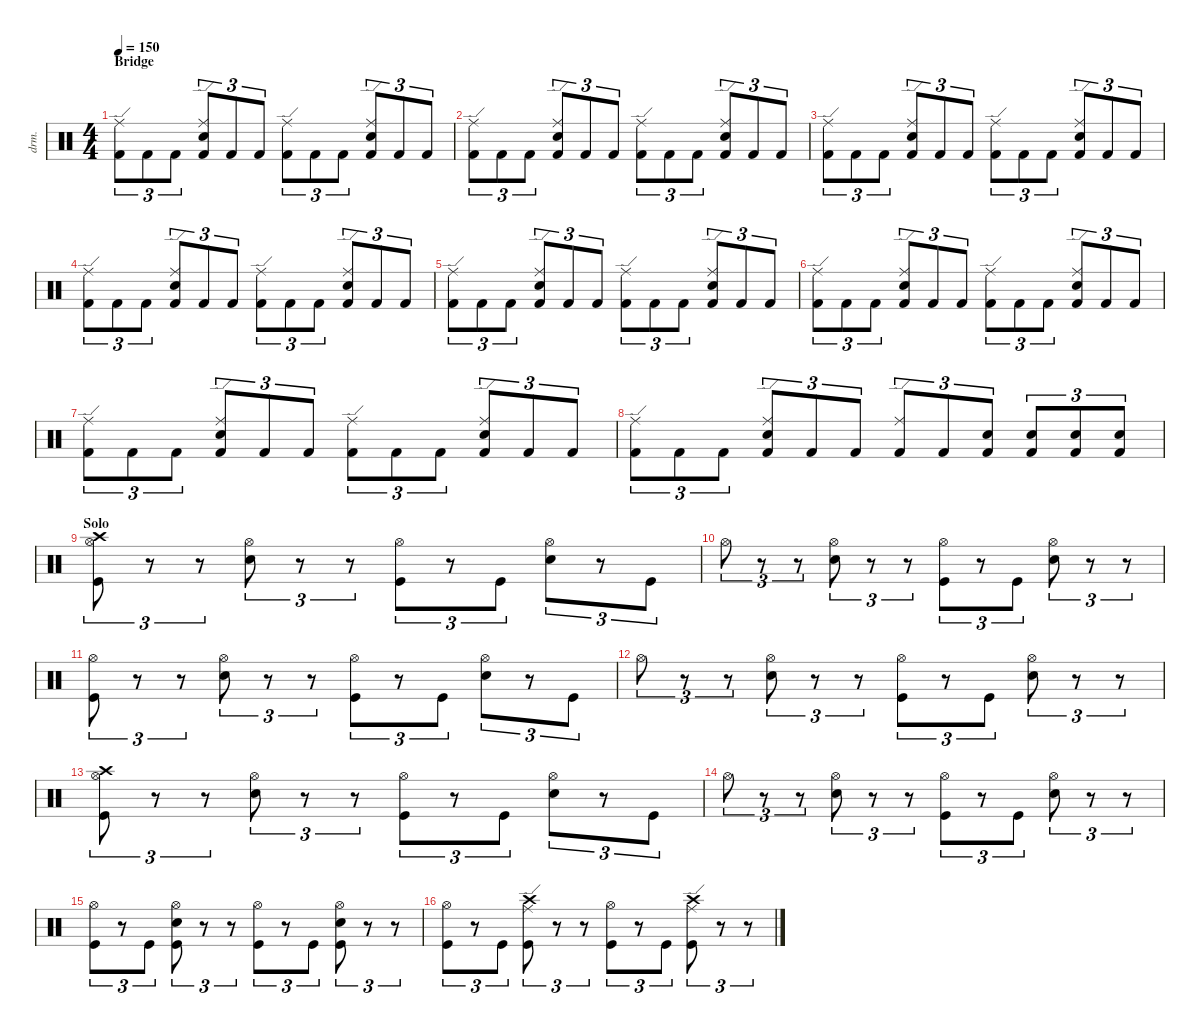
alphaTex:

\defaultSystemsLayout 4
\hideDynamics
\bracketExtendMode nobrackets
\otherSystemsTrackNameOrientation horizontal
\track ("Drumkit" "drm.") {solo instrument percussion}
\staff {score}
\articulation defaults
\ts (4 4)
\section ("" "Bridge")
\scale
1.06666
\tempo 150
\accidentals auto
\clef neutral
\ottava regular
\simile none
\ks aminor
("Kick (hit) 2" "Ride (edge)").8{tu (3 2) dy mf beam Down} "Kick (hit) 2".8{tu (3 2) beam Down} "Kick (hit) 2".8{tu (3 2) beam Down} ("Kick (hit) 2" "Snare (hit) 2" "Ride (edge)").8{tu (3 2) beam Up} "Kick (hit) 2".8{tu (3 2) beam Up} "Kick (hit) 2".8{tu (3 2) beam Up} ("Kick (hit) 2" "Ride (edge)").8{tu (3 2) beam Down} "Kick (hit) 2".8{tu (3 2) beam Down} "Kick (hit) 2".8{tu (3 2) beam Down} ("Kick (hit) 2" "Snare (hit) 2" "Ride (edge)").8{tu (3 2) beam Up} "Kick (hit) 2".8{tu (3 2) beam Up} "Kick (hit) 2".8{tu (3 2) beam Up} |
\scale
0.977779 ("Kick (hit) 2" "Ride (edge)").8{tu (3 2) beam Down} "Kick (hit) 2".8{tu (3 2) beam Down} "Kick (hit) 2".8{tu (3 2) beam Down} ("Kick (hit) 2" "Snare (hit) 2" "Ride (edge)").8{tu (3 2) beam Up} "Kick (hit) 2".8{tu (3 2) beam Up} "Kick (hit) 2".8{tu (3 2) beam Up} ("Kick (hit) 2" "Ride (edge)").8{tu (3 2) beam Down} "Kick (hit) 2".8{tu (3 2) beam Down} "Kick (hit) 2".8{tu (3 2) beam Down} ("Kick (hit) 2" "Snare (hit) 2" "Ride (edge)").8{tu (3 2) beam Up} "Kick (hit) 2".8{tu (3 2) beam Up} "Kick (hit) 2".8{tu (3 2) beam Up} |
\scale
0.977779 ("Kick (hit) 2" "Ride (edge)").8{tu (3 2) beam Down} "Kick (hit) 2".8{tu (3 2) beam Down} "Kick (hit) 2".8{tu (3 2) beam Down} ("Kick (hit) 2" "Snare (hit) 2" "Ride (edge)").8{tu (3 2) beam Up} "Kick (hit) 2".8{tu (3 2) beam Up} "Kick (hit) 2".8{tu (3 2) beam Up} ("Kick (hit) 2" "Ride (edge)").8{tu (3 2) beam Down} "Kick (hit) 2".8{tu (3 2) beam Down} "Kick (hit) 2".8{tu (3 2) beam Down} ("Kick (hit) 2" "Snare (hit) 2" "Ride (edge)").8{tu (3 2) beam Up} "Kick (hit) 2".8{tu (3 2) beam Up} "Kick (hit) 2".8{tu (3 2) beam Up} |
\scale
0.977779 ("Kick (hit) 2" "Ride (edge)").8{tu (3 2) beam Down} "Kick (hit) 2".8{tu (3 2) beam Down} "Kick (hit) 2".8{tu (3 2) beam Down} ("Kick (hit) 2" "Snare (hit) 2" "Ride (edge)").8{tu (3 2) beam Up} "Kick (hit) 2".8{tu (3 2) beam Up} "Kick (hit) 2".8{tu (3 2) beam Up} ("Kick (hit) 2" "Ride (edge)").8{tu (3 2) beam Down} "Kick (hit) 2".8{tu (3 2) beam Down} "Kick (hit) 2".8{tu (3 2) beam Down} ("Kick (hit) 2" "Snare (hit) 2" "Ride (edge)").8{tu (3 2) beam Up} "Kick (hit) 2".8{tu (3 2) beam Up} "Kick (hit) 2".8{tu (3 2) beam Up} |
\scale
1.06224 ("Kick (hit) 2" "Ride (edge)").8{tu (3 2) beam Down} "Kick (hit) 2".8{tu (3 2) beam Down} "Kick (hit) 2".8{tu (3 2) beam Down} ("Kick (hit) 2" "Snare (hit) 2" "Ride (edge)").8{tu (3 2) beam Up} "Kick (hit) 2".8{tu (3 2) beam Up} "Kick (hit) 2".8{tu (3 2) beam Up} ("Kick (hit) 2" "Ride (edge)").8{tu (3 2) beam Down} "Kick (hit) 2".8{tu (3 2) beam Down} "Kick (hit) 2".8{tu (3 2) beam Down} ("Kick (hit) 2" "Snare (hit) 2" "Ride (edge)").8{tu (3 2) beam Up} "Kick (hit) 2".8{tu (3 2) beam Up} "Kick (hit) 2".8{tu (3 2) beam Up} |
\scale
0.973358 ("Kick (hit) 2" "Ride (edge)").8{tu (3 2) beam Down} "Kick (hit) 2".8{tu (3 2) beam Down} "Kick (hit) 2".8{tu (3 2) beam Down} ("Kick (hit) 2" "Snare (hit) 2" "Ride (edge)").8{tu (3 2) beam Up} "Kick (hit) 2".8{tu (3 2) beam Up} "Kick (hit) 2".8{tu (3 2) beam Up} ("Kick (hit) 2" "Ride (edge)").8{tu (3 2) beam Down} "Kick (hit) 2".8{tu (3 2) beam Down} "Kick (hit) 2".8{tu (3 2) beam Down} ("Kick (hit) 2" "Snare (hit) 2" "Ride (edge)").8{tu (3 2) beam Up} "Kick (hit) 2".8{tu (3 2) beam Up} "Kick (hit) 2".8{tu (3 2) beam Up} |
\scale
0.973358 ("Kick (hit) 2" "Ride (edge)").8{tu (3 2) beam Down} "Kick (hit) 2".8{tu (3 2) beam Down} "Kick (hit) 2".8{tu (3 2) beam Down} ("Kick (hit) 2" "Snare (hit) 2" "Ride (edge)").8{tu (3 2) beam Up} "Kick (hit) 2".8{tu (3 2) beam Up} "Kick (hit) 2".8{tu (3 2) beam Up} ("Kick (hit) 2" "Ride (edge)").8{tu (3 2) beam Down} "Kick (hit) 2".8{tu (3 2) beam Down} "Kick (hit) 2".8{tu (3 2) beam Down} ("Kick (hit) 2" "Snare (hit) 2" "Ride (edge)").8{tu (3 2) beam Up} "Kick (hit) 2".8{tu (3 2) beam Up} "Kick (hit) 2".8{tu (3 2) beam Up} |
\scale
0.991042 ("Kick (hit) 2" "Ride (edge)").8{tu (3 2) beam Down} "Kick (hit) 2".8{tu (3 2) beam Down} "Kick (hit) 2".8{tu (3 2) beam Down} ("Kick (hit) 2" "Snare (hit) 2" "Ride (edge)").8{tu (3 2) beam Up} "Kick (hit) 2".8{tu (3 2) beam Up} "Kick (hit) 2".8{tu (3 2) beam Up} ("Kick (hit) 2" "Ride (edge)").8{tu (3 2) beam Up} "Kick (hit) 2".8{tu (3 2) beam Up} ("Kick (hit) 2" "Snare (hit) 2").8{tu (3 2) beam Up} ("Kick (hit) 2" "Snare (hit) 2").8{tu (3 2) beam Up} ("Kick (hit) 2" "Snare (hit) 2").8{tu (3 2) beam Up} ("Kick (hit) 2" "Snare (hit) 2").8{tu (3 2) beam Up} |
\section ("" "Solo")
\scale
1.06666 ("Hi-Hat (open)" "Kick (hit)" "Crash high (hit)").8{tu (3 2) beam Down} r.8{tu (3 2) beam Down} r.8{tu (3 2) beam Down} ("Hi-Hat (open)" "Snare (hit) 2").8{tu (3 2) beam Down} r.8{tu (3 2) beam Down} r.8{tu (3 2) beam Down} ("Hi-Hat (open)" "Kick (hit)").8{tu (3 2) beam Down} r.8{tu (3 2) beam Down} "Kick (hit)".8{tu (3 2) beam Down} ("Hi-Hat (open)" "Snare (hit) 2").8{tu (3 2) beam Down} r.8{tu (3 2) beam Down} "Kick (hit)".8{tu (3 2) beam Down} |
\scale
0.977779 "Hi-Hat (open)".8{tu (3 2) beam Down} r.8{tu (3 2) beam Down} r.8{tu (3 2) beam Down} ("Hi-Hat (open)" "Snare (hit) 2").8{tu (3 2) beam Down} r.8{tu (3 2) beam Down} r.8{tu (3 2) beam Down} ("Hi-Hat (open)" "Kick (hit)").8{tu (3 2) beam Down} r.8{tu (3 2) beam Down} "Kick (hit)".8{tu (3 2) beam Down} ("Hi-Hat (open)" "Snare (hit) 2").8{tu (3 2) beam Down} r.8{tu (3 2) beam Down} r.8{tu (3 2) beam Down} |
\scale
0.977779 ("Hi-Hat (open)" "Kick (hit)").8{tu (3 2) beam Down} r.8{tu (3 2) beam Down} r.8{tu (3 2) beam Down} ("Hi-Hat (open)" "Snare (hit) 2").8{tu (3 2) beam Down} r.8{tu (3 2) beam Down} r.8{tu (3 2) beam Down} ("Hi-Hat (open)" "Kick (hit)").8{tu (3 2) beam Down} r.8{tu (3 2) beam Down} "Kick (hit)".8{tu (3 2) beam Down} ("Hi-Hat (open)" "Snare (hit) 2").8{tu (3 2) beam Down} r.8{tu (3 2) beam Down} "Kick (hit)".8{tu (3 2) beam Down} |
\scale
0.977779 "Hi-Hat (open)".8{tu (3 2) beam Down} r.8{tu (3 2) beam Down} r.8{tu (3 2) beam Down} ("Hi-Hat (open)" "Snare (hit) 2").8{tu (3 2) beam Down} r.8{tu (3 2) beam Down} r.8{tu (3 2) beam Down} ("Hi-Hat (open)" "Kick (hit)").8{tu (3 2) beam Down} r.8{tu (3 2) beam Down} "Kick (hit)".8{tu (3 2) beam Down} ("Hi-Hat (open)" "Snare (hit) 2").8{tu (3 2) beam Down} r.8{tu (3 2) beam Down} r.8{tu (3 2) beam Down} |
\scale
1.06666 ("Hi-Hat (open)" "Kick (hit)" "Crash high (hit)").8{tu (3 2) beam Down} r.8{tu (3 2) beam Down} r.8{tu (3 2) beam Down} ("Hi-Hat (open)" "Snare (hit) 2").8{tu (3 2) beam Down} r.8{tu (3 2) beam Down} r.8{tu (3 2) beam Down} ("Hi-Hat (open)" "Kick (hit)").8{tu (3 2) beam Down} r.8{tu (3 2) beam Down} "Kick (hit)".8{tu (3 2) beam Down} ("Hi-Hat (open)" "Snare (hit) 2").8{tu (3 2) beam Down} r.8{tu (3 2) beam Down} "Kick (hit)".8{tu (3 2) beam Down} |
\scale
0.977779 "Hi-Hat (open)".8{tu (3 2) beam Down} r.8{tu (3 2) beam Down} r.8{tu (3 2) beam Down} ("Hi-Hat (open)" "Snare (hit) 2").8{tu (3 2) beam Down} r.8{tu (3 2) beam Down} r.8{tu (3 2) beam Down} ("Hi-Hat (open)" "Kick (hit)").8{tu (3 2) beam Down} r.8{tu (3 2) beam Down} "Kick (hit)".8{tu (3 2) beam Down} ("Hi-Hat (open)" "Snare (hit) 2").8{tu (3 2) beam Down} r.8{tu (3 2) beam Down} r.8{tu (3 2) beam Down} |
\scale
0.977779 ("Kick (hit)" "Hi-Hat (open)").8{tu (3 2) beam Down} r.8{tu (3 2) beam Down} "Kick (hit)".8{tu (3 2) beam Down} ("Kick (hit)" "Hi-Hat (open)" "Snare (hit) 2").8{tu (3 2) beam Down} r.8{tu (3 2) beam Down} r.8{tu (3 2) beam Down} ("Kick (hit)" "Hi-Hat (open)").8{tu (3 2) beam Down} r.8{tu (3 2) beam Down} "Kick (hit)".8{tu (3 2) beam Down} ("Kick (hit)" "Hi-Hat (open)" "Snare (hit) 2").8{tu (3 2) beam Down} r.8{tu (3 2) beam Down} r.8{tu (3 2) beam Down} |
\scale
0.977779 ("Kick (hit)" "Hi-Hat (open)").8{tu (3 2) beam Down} r.8{tu (3 2) beam Down} "Kick (hit)".8{tu (3 2) beam Down} ("Kick (hit)" "Crash high (hit)" "Ride (edge)").8{tu (3 2) beam Down} r.8{tu (3 2) beam Down} r.8{tu (3 2) beam Down} ("Kick (hit)" "Hi-Hat (open)").8{tu (3 2) beam Down} r.8{tu (3 2) beam Down} "Kick (hit)".8{tu (3 2) beam Down} ("Kick (hit)" "Crash high (hit)" "Ride (edge)").8{tu (3 2) beam Down} r.8{tu (3 2) beam Down} r.8{tu (3 2) beam Down}
